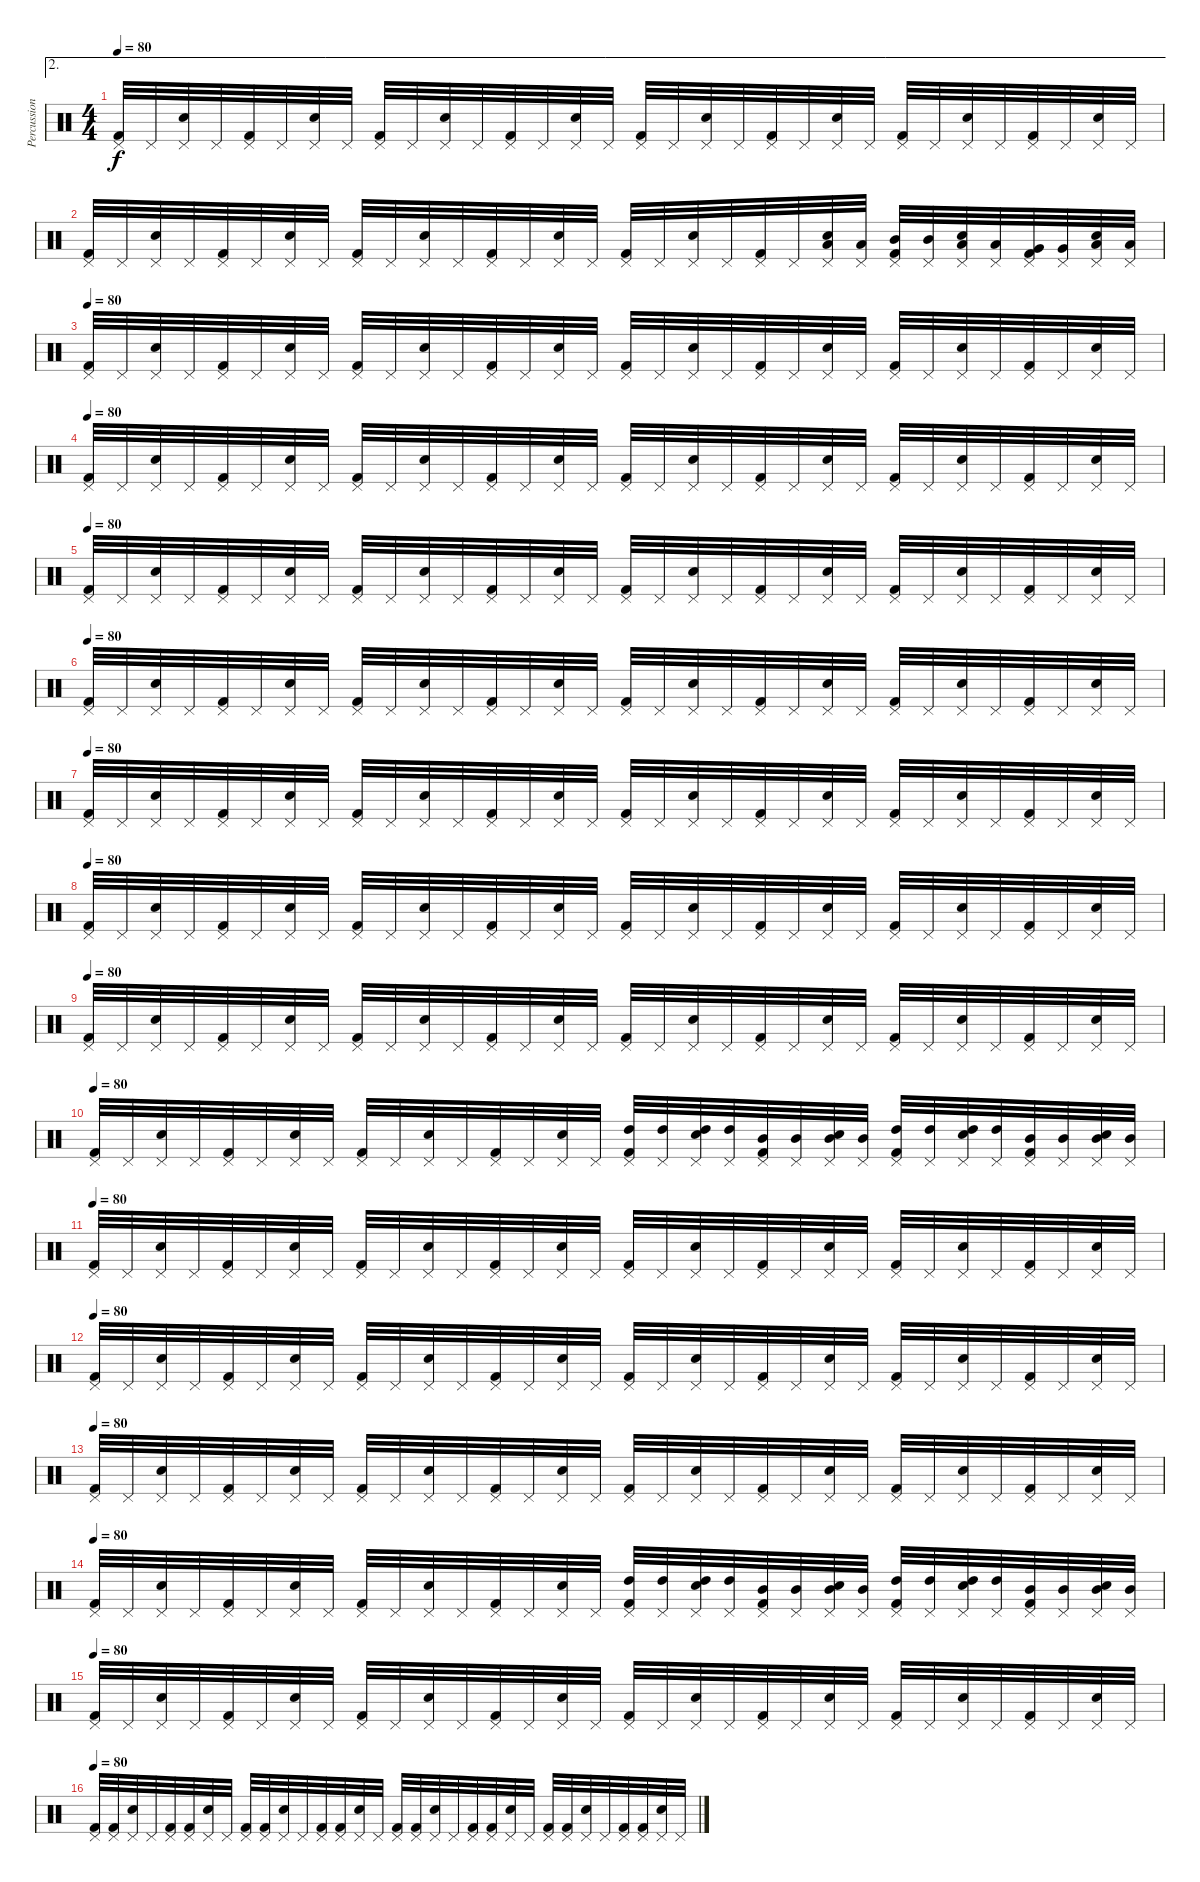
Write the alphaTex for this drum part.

\track ("Percussion" "Percussion") {instrument percussion}
\staff {score}
\articulation defaults
\ae 2
\ts (4 4)
\tempo 80
\clef neutral
\ks c
("Kick (hit) 2" "Pedal Hi-Hat (hit)").32{dy f} "Pedal Hi-Hat (hit)".32 ("Pedal Hi-Hat (hit)" "Electric Snare (hit)").32 "Pedal Hi-Hat (hit)".32 ("Kick (hit) 2" "Pedal Hi-Hat (hit)").32 "Pedal Hi-Hat (hit)".32 ("Pedal Hi-Hat (hit)" "Electric Snare (hit)").32 "Pedal Hi-Hat (hit)".32 ("Kick (hit) 2" "Pedal Hi-Hat (hit)").32 "Pedal Hi-Hat (hit)".32 ("Pedal Hi-Hat (hit)" "Electric Snare (hit)").32 "Pedal Hi-Hat (hit)".32 ("Kick (hit) 2" "Pedal Hi-Hat (hit)").32 "Pedal Hi-Hat (hit)".32 ("Pedal Hi-Hat (hit)" "Electric Snare (hit)").32 "Pedal Hi-Hat (hit)".32 ("Kick (hit) 2" "Pedal Hi-Hat (hit)").32 "Pedal Hi-Hat (hit)".32 ("Pedal Hi-Hat (hit)" "Electric Snare (hit)").32 "Pedal Hi-Hat (hit)".32 ("Kick (hit) 2" "Pedal Hi-Hat (hit)").32 "Pedal Hi-Hat (hit)".32 ("Pedal Hi-Hat (hit)" "Electric Snare (hit)").32 "Pedal Hi-Hat (hit)".32 ("Kick (hit) 2" "Pedal Hi-Hat (hit)").32 "Pedal Hi-Hat (hit)".32 ("Pedal Hi-Hat (hit)" "Electric Snare (hit)").32 "Pedal Hi-Hat (hit)".32 ("Kick (hit) 2" "Pedal Hi-Hat (hit)").32 "Pedal Hi-Hat (hit)".32 ("Pedal Hi-Hat (hit)" "Electric Snare (hit)").32 "Pedal Hi-Hat (hit)".32 |
("Kick (hit) 2" "Pedal Hi-Hat (hit)").32 "Pedal Hi-Hat (hit)".32 ("Pedal Hi-Hat (hit)" "Electric Snare (hit)").32 "Pedal Hi-Hat (hit)".32 ("Kick (hit) 2" "Pedal Hi-Hat (hit)").32 "Pedal Hi-Hat (hit)".32 ("Pedal Hi-Hat (hit)" "Electric Snare (hit)").32 "Pedal Hi-Hat (hit)".32 ("Kick (hit) 2" "Pedal Hi-Hat (hit)").32 "Pedal Hi-Hat (hit)".32 ("Pedal Hi-Hat (hit)" "Electric Snare (hit)").32 "Pedal Hi-Hat (hit)".32 ("Kick (hit) 2" "Pedal Hi-Hat (hit)").32 "Pedal Hi-Hat (hit)".32 ("Pedal Hi-Hat (hit)" "Electric Snare (hit)").32 "Pedal Hi-Hat (hit)".32 ("Kick (hit) 2" "Pedal Hi-Hat (hit)").32 "Pedal Hi-Hat (hit)".32 ("Pedal Hi-Hat (hit)" "Electric Snare (hit)").32 "Pedal Hi-Hat (hit)".32 ("Kick (hit) 2" "Pedal Hi-Hat (hit)").32 "Pedal Hi-Hat (hit)".32 ("Pedal Hi-Hat (hit)" "Electric Snare (hit)" "Low Tom (hit)").32 ("Pedal Hi-Hat (hit)" "Low Tom (hit)").32 ("Kick (hit) 2" "Pedal Hi-Hat (hit)" "Mid Tom (hit)").32 ("Pedal Hi-Hat (hit)" "Mid Tom (hit)").32 ("Pedal Hi-Hat (hit)" "Electric Snare (hit)" "Low Tom (hit)").32 ("Pedal Hi-Hat (hit)" "Low Tom (hit)").32 ("Kick (hit) 2" "Pedal Hi-Hat (hit)" "Very Low Tom (hit)").32 ("Pedal Hi-Hat (hit)" "Very Low Tom (hit)").32 ("Pedal Hi-Hat (hit)" "Electric Snare (hit)" "Low Floor Tom (hit)").32 ("Pedal Hi-Hat (hit)" "Low Floor Tom (hit)").32 |
\tempo 80
("Kick (hit) 2" "Pedal Hi-Hat (hit)").32 "Pedal Hi-Hat (hit)".32 ("Pedal Hi-Hat (hit)" "Electric Snare (hit)").32 "Pedal Hi-Hat (hit)".32 ("Kick (hit) 2" "Pedal Hi-Hat (hit)").32 "Pedal Hi-Hat (hit)".32 ("Pedal Hi-Hat (hit)" "Electric Snare (hit)").32 "Pedal Hi-Hat (hit)".32 ("Kick (hit) 2" "Pedal Hi-Hat (hit)").32 "Pedal Hi-Hat (hit)".32 ("Pedal Hi-Hat (hit)" "Electric Snare (hit)").32 "Pedal Hi-Hat (hit)".32 ("Kick (hit) 2" "Pedal Hi-Hat (hit)").32 "Pedal Hi-Hat (hit)".32 ("Pedal Hi-Hat (hit)" "Electric Snare (hit)").32 "Pedal Hi-Hat (hit)".32 ("Kick (hit) 2" "Pedal Hi-Hat (hit)").32 "Pedal Hi-Hat (hit)".32 ("Pedal Hi-Hat (hit)" "Electric Snare (hit)").32 "Pedal Hi-Hat (hit)".32 ("Kick (hit) 2" "Pedal Hi-Hat (hit)").32 "Pedal Hi-Hat (hit)".32 ("Pedal Hi-Hat (hit)" "Electric Snare (hit)").32 "Pedal Hi-Hat (hit)".32 ("Kick (hit) 2" "Pedal Hi-Hat (hit)").32 "Pedal Hi-Hat (hit)".32 ("Pedal Hi-Hat (hit)" "Electric Snare (hit)").32 "Pedal Hi-Hat (hit)".32 ("Kick (hit) 2" "Pedal Hi-Hat (hit)").32 "Pedal Hi-Hat (hit)".32 ("Pedal Hi-Hat (hit)" "Electric Snare (hit)").32 "Pedal Hi-Hat (hit)".32 |
\tempo 80
("Kick (hit) 2" "Pedal Hi-Hat (hit)").32 "Pedal Hi-Hat (hit)".32 ("Pedal Hi-Hat (hit)" "Electric Snare (hit)").32 "Pedal Hi-Hat (hit)".32 ("Kick (hit) 2" "Pedal Hi-Hat (hit)").32 "Pedal Hi-Hat (hit)".32 ("Pedal Hi-Hat (hit)" "Electric Snare (hit)").32 "Pedal Hi-Hat (hit)".32 ("Kick (hit) 2" "Pedal Hi-Hat (hit)").32 "Pedal Hi-Hat (hit)".32 ("Pedal Hi-Hat (hit)" "Electric Snare (hit)").32 "Pedal Hi-Hat (hit)".32 ("Kick (hit) 2" "Pedal Hi-Hat (hit)").32 "Pedal Hi-Hat (hit)".32 ("Pedal Hi-Hat (hit)" "Electric Snare (hit)").32 "Pedal Hi-Hat (hit)".32 ("Kick (hit) 2" "Pedal Hi-Hat (hit)").32 "Pedal Hi-Hat (hit)".32 ("Pedal Hi-Hat (hit)" "Electric Snare (hit)").32 "Pedal Hi-Hat (hit)".32 ("Kick (hit) 2" "Pedal Hi-Hat (hit)").32 "Pedal Hi-Hat (hit)".32 ("Pedal Hi-Hat (hit)" "Electric Snare (hit)").32 "Pedal Hi-Hat (hit)".32 ("Kick (hit) 2" "Pedal Hi-Hat (hit)").32 "Pedal Hi-Hat (hit)".32 ("Pedal Hi-Hat (hit)" "Electric Snare (hit)").32 "Pedal Hi-Hat (hit)".32 ("Kick (hit) 2" "Pedal Hi-Hat (hit)").32 "Pedal Hi-Hat (hit)".32 ("Pedal Hi-Hat (hit)" "Electric Snare (hit)").32 "Pedal Hi-Hat (hit)".32 |
\tempo 80
("Kick (hit) 2" "Pedal Hi-Hat (hit)").32 "Pedal Hi-Hat (hit)".32 ("Pedal Hi-Hat (hit)" "Electric Snare (hit)").32 "Pedal Hi-Hat (hit)".32 ("Kick (hit) 2" "Pedal Hi-Hat (hit)").32 "Pedal Hi-Hat (hit)".32 ("Pedal Hi-Hat (hit)" "Electric Snare (hit)").32 "Pedal Hi-Hat (hit)".32 ("Kick (hit) 2" "Pedal Hi-Hat (hit)").32 "Pedal Hi-Hat (hit)".32 ("Pedal Hi-Hat (hit)" "Electric Snare (hit)").32 "Pedal Hi-Hat (hit)".32 ("Kick (hit) 2" "Pedal Hi-Hat (hit)").32 "Pedal Hi-Hat (hit)".32 ("Pedal Hi-Hat (hit)" "Electric Snare (hit)").32 "Pedal Hi-Hat (hit)".32 ("Kick (hit) 2" "Pedal Hi-Hat (hit)").32 "Pedal Hi-Hat (hit)".32 ("Pedal Hi-Hat (hit)" "Electric Snare (hit)").32 "Pedal Hi-Hat (hit)".32 ("Kick (hit) 2" "Pedal Hi-Hat (hit)").32 "Pedal Hi-Hat (hit)".32 ("Pedal Hi-Hat (hit)" "Electric Snare (hit)").32 "Pedal Hi-Hat (hit)".32 ("Kick (hit) 2" "Pedal Hi-Hat (hit)").32 "Pedal Hi-Hat (hit)".32 ("Pedal Hi-Hat (hit)" "Electric Snare (hit)").32 "Pedal Hi-Hat (hit)".32 ("Kick (hit) 2" "Pedal Hi-Hat (hit)").32 "Pedal Hi-Hat (hit)".32 ("Pedal Hi-Hat (hit)" "Electric Snare (hit)").32 "Pedal Hi-Hat (hit)".32 |
\tempo 80
("Kick (hit) 2" "Pedal Hi-Hat (hit)").32 "Pedal Hi-Hat (hit)".32 ("Pedal Hi-Hat (hit)" "Electric Snare (hit)").32 "Pedal Hi-Hat (hit)".32 ("Kick (hit) 2" "Pedal Hi-Hat (hit)").32 "Pedal Hi-Hat (hit)".32 ("Pedal Hi-Hat (hit)" "Electric Snare (hit)").32 "Pedal Hi-Hat (hit)".32 ("Kick (hit) 2" "Pedal Hi-Hat (hit)").32 "Pedal Hi-Hat (hit)".32 ("Pedal Hi-Hat (hit)" "Electric Snare (hit)").32 "Pedal Hi-Hat (hit)".32 ("Kick (hit) 2" "Pedal Hi-Hat (hit)").32 "Pedal Hi-Hat (hit)".32 ("Pedal Hi-Hat (hit)" "Electric Snare (hit)").32 "Pedal Hi-Hat (hit)".32 ("Kick (hit) 2" "Pedal Hi-Hat (hit)").32 "Pedal Hi-Hat (hit)".32 ("Pedal Hi-Hat (hit)" "Electric Snare (hit)").32 "Pedal Hi-Hat (hit)".32 ("Kick (hit) 2" "Pedal Hi-Hat (hit)").32 "Pedal Hi-Hat (hit)".32 ("Pedal Hi-Hat (hit)" "Electric Snare (hit)").32 "Pedal Hi-Hat (hit)".32 ("Kick (hit) 2" "Pedal Hi-Hat (hit)").32 "Pedal Hi-Hat (hit)".32 ("Pedal Hi-Hat (hit)" "Electric Snare (hit)").32 "Pedal Hi-Hat (hit)".32 ("Kick (hit) 2" "Pedal Hi-Hat (hit)").32 "Pedal Hi-Hat (hit)".32 ("Pedal Hi-Hat (hit)" "Electric Snare (hit)").32 "Pedal Hi-Hat (hit)".32 |
\tempo 80
("Kick (hit) 2" "Pedal Hi-Hat (hit)").32 "Pedal Hi-Hat (hit)".32 ("Pedal Hi-Hat (hit)" "Electric Snare (hit)").32 "Pedal Hi-Hat (hit)".32 ("Kick (hit) 2" "Pedal Hi-Hat (hit)").32 "Pedal Hi-Hat (hit)".32 ("Pedal Hi-Hat (hit)" "Electric Snare (hit)").32 "Pedal Hi-Hat (hit)".32 ("Kick (hit) 2" "Pedal Hi-Hat (hit)").32 "Pedal Hi-Hat (hit)".32 ("Pedal Hi-Hat (hit)" "Electric Snare (hit)").32 "Pedal Hi-Hat (hit)".32 ("Kick (hit) 2" "Pedal Hi-Hat (hit)").32 "Pedal Hi-Hat (hit)".32 ("Pedal Hi-Hat (hit)" "Electric Snare (hit)").32 "Pedal Hi-Hat (hit)".32 ("Kick (hit) 2" "Pedal Hi-Hat (hit)").32 "Pedal Hi-Hat (hit)".32 ("Pedal Hi-Hat (hit)" "Electric Snare (hit)").32 "Pedal Hi-Hat (hit)".32 ("Kick (hit) 2" "Pedal Hi-Hat (hit)").32 "Pedal Hi-Hat (hit)".32 ("Pedal Hi-Hat (hit)" "Electric Snare (hit)").32 "Pedal Hi-Hat (hit)".32 ("Kick (hit) 2" "Pedal Hi-Hat (hit)").32 "Pedal Hi-Hat (hit)".32 ("Pedal Hi-Hat (hit)" "Electric Snare (hit)").32 "Pedal Hi-Hat (hit)".32 ("Kick (hit) 2" "Pedal Hi-Hat (hit)").32 "Pedal Hi-Hat (hit)".32 ("Pedal Hi-Hat (hit)" "Electric Snare (hit)").32 "Pedal Hi-Hat (hit)".32 |
\tempo 80
("Kick (hit) 2" "Pedal Hi-Hat (hit)").32 "Pedal Hi-Hat (hit)".32 ("Pedal Hi-Hat (hit)" "Electric Snare (hit)").32 "Pedal Hi-Hat (hit)".32 ("Kick (hit) 2" "Pedal Hi-Hat (hit)").32 "Pedal Hi-Hat (hit)".32 ("Pedal Hi-Hat (hit)" "Electric Snare (hit)").32 "Pedal Hi-Hat (hit)".32 ("Kick (hit) 2" "Pedal Hi-Hat (hit)").32 "Pedal Hi-Hat (hit)".32 ("Pedal Hi-Hat (hit)" "Electric Snare (hit)").32 "Pedal Hi-Hat (hit)".32 ("Kick (hit) 2" "Pedal Hi-Hat (hit)").32 "Pedal Hi-Hat (hit)".32 ("Pedal Hi-Hat (hit)" "Electric Snare (hit)").32 "Pedal Hi-Hat (hit)".32 ("Kick (hit) 2" "Pedal Hi-Hat (hit)").32 "Pedal Hi-Hat (hit)".32 ("Pedal Hi-Hat (hit)" "Electric Snare (hit)").32 "Pedal Hi-Hat (hit)".32 ("Kick (hit) 2" "Pedal Hi-Hat (hit)").32 "Pedal Hi-Hat (hit)".32 ("Pedal Hi-Hat (hit)" "Electric Snare (hit)").32 "Pedal Hi-Hat (hit)".32 ("Kick (hit) 2" "Pedal Hi-Hat (hit)").32 "Pedal Hi-Hat (hit)".32 ("Pedal Hi-Hat (hit)" "Electric Snare (hit)").32 "Pedal Hi-Hat (hit)".32 ("Kick (hit) 2" "Pedal Hi-Hat (hit)").32 "Pedal Hi-Hat (hit)".32 ("Pedal Hi-Hat (hit)" "Electric Snare (hit)").32 "Pedal Hi-Hat (hit)".32 |
\tempo 80
("Kick (hit) 2" "Pedal Hi-Hat (hit)").32 "Pedal Hi-Hat (hit)".32 ("Pedal Hi-Hat (hit)" "Electric Snare (hit)").32 "Pedal Hi-Hat (hit)".32 ("Kick (hit) 2" "Pedal Hi-Hat (hit)").32 "Pedal Hi-Hat (hit)".32 ("Pedal Hi-Hat (hit)" "Electric Snare (hit)").32 "Pedal Hi-Hat (hit)".32 ("Kick (hit) 2" "Pedal Hi-Hat (hit)").32 "Pedal Hi-Hat (hit)".32 ("Pedal Hi-Hat (hit)" "Electric Snare (hit)").32 "Pedal Hi-Hat (hit)".32 ("Kick (hit) 2" "Pedal Hi-Hat (hit)").32 "Pedal Hi-Hat (hit)".32 ("Pedal Hi-Hat (hit)" "Electric Snare (hit)").32 "Pedal Hi-Hat (hit)".32 ("Kick (hit) 2" "Pedal Hi-Hat (hit)").32 "Pedal Hi-Hat (hit)".32 ("Pedal Hi-Hat (hit)" "Electric Snare (hit)").32 "Pedal Hi-Hat (hit)".32 ("Kick (hit) 2" "Pedal Hi-Hat (hit)").32 "Pedal Hi-Hat (hit)".32 ("Pedal Hi-Hat (hit)" "Electric Snare (hit)").32 "Pedal Hi-Hat (hit)".32 ("Kick (hit) 2" "Pedal Hi-Hat (hit)").32 "Pedal Hi-Hat (hit)".32 ("Pedal Hi-Hat (hit)" "Electric Snare (hit)").32 "Pedal Hi-Hat (hit)".32 ("Kick (hit) 2" "Pedal Hi-Hat (hit)").32 "Pedal Hi-Hat (hit)".32 ("Pedal Hi-Hat (hit)" "Electric Snare (hit)").32 "Pedal Hi-Hat (hit)".32 |
\tempo 80
("Kick (hit) 2" "Pedal Hi-Hat (hit)").32 "Pedal Hi-Hat (hit)".32 ("Pedal Hi-Hat (hit)" "Electric Snare (hit)").32 "Pedal Hi-Hat (hit)".32 ("Kick (hit) 2" "Pedal Hi-Hat (hit)").32 "Pedal Hi-Hat (hit)".32 ("Pedal Hi-Hat (hit)" "Electric Snare (hit)").32 "Pedal Hi-Hat (hit)".32 ("Kick (hit) 2" "Pedal Hi-Hat (hit)").32 "Pedal Hi-Hat (hit)".32 ("Pedal Hi-Hat (hit)" "Electric Snare (hit)").32 "Pedal Hi-Hat (hit)".32 ("Kick (hit) 2" "Pedal Hi-Hat (hit)").32 "Pedal Hi-Hat (hit)".32 ("Pedal Hi-Hat (hit)" "Electric Snare (hit)").32 "Pedal Hi-Hat (hit)".32 ("Kick (hit) 2" "Pedal Hi-Hat (hit)" "High Tom (hit)").32 ("Pedal Hi-Hat (hit)" "High Tom (hit)").32 ("Pedal Hi-Hat (hit)" "Electric Snare (hit)" "High Tom (hit)").32 ("Pedal Hi-Hat (hit)" "High Tom (hit)").32 ("Kick (hit) 2" "Pedal Hi-Hat (hit)" "Mid Tom (hit)").32 ("Pedal Hi-Hat (hit)" "Mid Tom (hit)").32 ("Pedal Hi-Hat (hit)" "Electric Snare (hit)" "Mid Tom (hit)").32 ("Pedal Hi-Hat (hit)" "Mid Tom (hit)").32 ("Kick (hit) 2" "Pedal Hi-Hat (hit)" "High Tom (hit)").32 ("Pedal Hi-Hat (hit)" "High Tom (hit)").32 ("Pedal Hi-Hat (hit)" "Electric Snare (hit)" "High Tom (hit)").32 ("Pedal Hi-Hat (hit)" "High Tom (hit)").32 ("Kick (hit) 2" "Pedal Hi-Hat (hit)" "Mid Tom (hit)").32 ("Pedal Hi-Hat (hit)" "Mid Tom (hit)").32 ("Pedal Hi-Hat (hit)" "Electric Snare (hit)" "Mid Tom (hit)").32 ("Pedal Hi-Hat (hit)" "Mid Tom (hit)").32 |
\tempo 80
("Kick (hit) 2" "Pedal Hi-Hat (hit)").32 "Pedal Hi-Hat (hit)".32 ("Pedal Hi-Hat (hit)" "Electric Snare (hit)").32 "Pedal Hi-Hat (hit)".32 ("Kick (hit) 2" "Pedal Hi-Hat (hit)").32 "Pedal Hi-Hat (hit)".32 ("Pedal Hi-Hat (hit)" "Electric Snare (hit)").32 "Pedal Hi-Hat (hit)".32 ("Kick (hit) 2" "Pedal Hi-Hat (hit)").32 "Pedal Hi-Hat (hit)".32 ("Pedal Hi-Hat (hit)" "Electric Snare (hit)").32 "Pedal Hi-Hat (hit)".32 ("Kick (hit) 2" "Pedal Hi-Hat (hit)").32 "Pedal Hi-Hat (hit)".32 ("Pedal Hi-Hat (hit)" "Electric Snare (hit)").32 "Pedal Hi-Hat (hit)".32 ("Kick (hit) 2" "Pedal Hi-Hat (hit)").32 "Pedal Hi-Hat (hit)".32 ("Pedal Hi-Hat (hit)" "Electric Snare (hit)").32 "Pedal Hi-Hat (hit)".32 ("Kick (hit) 2" "Pedal Hi-Hat (hit)").32 "Pedal Hi-Hat (hit)".32 ("Pedal Hi-Hat (hit)" "Electric Snare (hit)").32 "Pedal Hi-Hat (hit)".32 ("Kick (hit) 2" "Pedal Hi-Hat (hit)").32 "Pedal Hi-Hat (hit)".32 ("Pedal Hi-Hat (hit)" "Electric Snare (hit)").32 "Pedal Hi-Hat (hit)".32 ("Kick (hit) 2" "Pedal Hi-Hat (hit)").32 "Pedal Hi-Hat (hit)".32 ("Pedal Hi-Hat (hit)" "Electric Snare (hit)").32 "Pedal Hi-Hat (hit)".32 |
\tempo 80
("Kick (hit) 2" "Pedal Hi-Hat (hit)").32 "Pedal Hi-Hat (hit)".32 ("Pedal Hi-Hat (hit)" "Electric Snare (hit)").32 "Pedal Hi-Hat (hit)".32 ("Kick (hit) 2" "Pedal Hi-Hat (hit)").32 "Pedal Hi-Hat (hit)".32 ("Pedal Hi-Hat (hit)" "Electric Snare (hit)").32 "Pedal Hi-Hat (hit)".32 ("Kick (hit) 2" "Pedal Hi-Hat (hit)").32 "Pedal Hi-Hat (hit)".32 ("Pedal Hi-Hat (hit)" "Electric Snare (hit)").32 "Pedal Hi-Hat (hit)".32 ("Kick (hit) 2" "Pedal Hi-Hat (hit)").32 "Pedal Hi-Hat (hit)".32 ("Pedal Hi-Hat (hit)" "Electric Snare (hit)").32 "Pedal Hi-Hat (hit)".32 ("Kick (hit) 2" "Pedal Hi-Hat (hit)").32 "Pedal Hi-Hat (hit)".32 ("Pedal Hi-Hat (hit)" "Electric Snare (hit)").32 "Pedal Hi-Hat (hit)".32 ("Kick (hit) 2" "Pedal Hi-Hat (hit)").32 "Pedal Hi-Hat (hit)".32 ("Pedal Hi-Hat (hit)" "Electric Snare (hit)").32 "Pedal Hi-Hat (hit)".32 ("Kick (hit) 2" "Pedal Hi-Hat (hit)").32 "Pedal Hi-Hat (hit)".32 ("Pedal Hi-Hat (hit)" "Electric Snare (hit)").32 "Pedal Hi-Hat (hit)".32 ("Kick (hit) 2" "Pedal Hi-Hat (hit)").32 "Pedal Hi-Hat (hit)".32 ("Pedal Hi-Hat (hit)" "Electric Snare (hit)").32 "Pedal Hi-Hat (hit)".32 |
\tempo 80
("Kick (hit) 2" "Pedal Hi-Hat (hit)").32 "Pedal Hi-Hat (hit)".32 ("Pedal Hi-Hat (hit)" "Electric Snare (hit)").32 "Pedal Hi-Hat (hit)".32 ("Kick (hit) 2" "Pedal Hi-Hat (hit)").32 "Pedal Hi-Hat (hit)".32 ("Pedal Hi-Hat (hit)" "Electric Snare (hit)").32 "Pedal Hi-Hat (hit)".32 ("Kick (hit) 2" "Pedal Hi-Hat (hit)").32 "Pedal Hi-Hat (hit)".32 ("Pedal Hi-Hat (hit)" "Electric Snare (hit)").32 "Pedal Hi-Hat (hit)".32 ("Kick (hit) 2" "Pedal Hi-Hat (hit)").32 "Pedal Hi-Hat (hit)".32 ("Pedal Hi-Hat (hit)" "Electric Snare (hit)").32 "Pedal Hi-Hat (hit)".32 ("Kick (hit) 2" "Pedal Hi-Hat (hit)").32 "Pedal Hi-Hat (hit)".32 ("Pedal Hi-Hat (hit)" "Electric Snare (hit)").32 "Pedal Hi-Hat (hit)".32 ("Kick (hit) 2" "Pedal Hi-Hat (hit)").32 "Pedal Hi-Hat (hit)".32 ("Pedal Hi-Hat (hit)" "Electric Snare (hit)").32 "Pedal Hi-Hat (hit)".32 ("Kick (hit) 2" "Pedal Hi-Hat (hit)").32 "Pedal Hi-Hat (hit)".32 ("Pedal Hi-Hat (hit)" "Electric Snare (hit)").32 "Pedal Hi-Hat (hit)".32 ("Kick (hit) 2" "Pedal Hi-Hat (hit)").32 "Pedal Hi-Hat (hit)".32 ("Pedal Hi-Hat (hit)" "Electric Snare (hit)").32 "Pedal Hi-Hat (hit)".32 |
\tempo 80
("Kick (hit) 2" "Pedal Hi-Hat (hit)").32 "Pedal Hi-Hat (hit)".32 ("Pedal Hi-Hat (hit)" "Electric Snare (hit)").32 "Pedal Hi-Hat (hit)".32 ("Kick (hit) 2" "Pedal Hi-Hat (hit)").32 "Pedal Hi-Hat (hit)".32 ("Pedal Hi-Hat (hit)" "Electric Snare (hit)").32 "Pedal Hi-Hat (hit)".32 ("Kick (hit) 2" "Pedal Hi-Hat (hit)").32 "Pedal Hi-Hat (hit)".32 ("Pedal Hi-Hat (hit)" "Electric Snare (hit)").32 "Pedal Hi-Hat (hit)".32 ("Kick (hit) 2" "Pedal Hi-Hat (hit)").32 "Pedal Hi-Hat (hit)".32 ("Pedal Hi-Hat (hit)" "Electric Snare (hit)").32 "Pedal Hi-Hat (hit)".32 ("Kick (hit) 2" "Pedal Hi-Hat (hit)" "High Tom (hit)").32 ("Pedal Hi-Hat (hit)" "High Tom (hit)").32 ("Pedal Hi-Hat (hit)" "Electric Snare (hit)" "High Tom (hit)").32 ("Pedal Hi-Hat (hit)" "High Tom (hit)").32 ("Kick (hit) 2" "Pedal Hi-Hat (hit)" "Mid Tom (hit)").32 ("Pedal Hi-Hat (hit)" "Mid Tom (hit)").32 ("Pedal Hi-Hat (hit)" "Electric Snare (hit)" "Mid Tom (hit)").32 ("Pedal Hi-Hat (hit)" "Mid Tom (hit)").32 ("Kick (hit) 2" "Pedal Hi-Hat (hit)" "High Tom (hit)").32 ("Pedal Hi-Hat (hit)" "High Tom (hit)").32 ("Pedal Hi-Hat (hit)" "Electric Snare (hit)" "High Tom (hit)").32 ("Pedal Hi-Hat (hit)" "High Tom (hit)").32 ("Kick (hit) 2" "Pedal Hi-Hat (hit)" "Mid Tom (hit)").32 ("Pedal Hi-Hat (hit)" "Mid Tom (hit)").32 ("Pedal Hi-Hat (hit)" "Electric Snare (hit)" "Mid Tom (hit)").32 ("Pedal Hi-Hat (hit)" "Mid Tom (hit)").32 |
\tempo 80
("Kick (hit) 2" "Pedal Hi-Hat (hit)").32 "Pedal Hi-Hat (hit)".32 ("Pedal Hi-Hat (hit)" "Electric Snare (hit)").32 "Pedal Hi-Hat (hit)".32 ("Kick (hit) 2" "Pedal Hi-Hat (hit)").32 "Pedal Hi-Hat (hit)".32 ("Pedal Hi-Hat (hit)" "Electric Snare (hit)").32 "Pedal Hi-Hat (hit)".32 ("Kick (hit) 2" "Pedal Hi-Hat (hit)").32 "Pedal Hi-Hat (hit)".32 ("Pedal Hi-Hat (hit)" "Electric Snare (hit)").32 "Pedal Hi-Hat (hit)".32 ("Kick (hit) 2" "Pedal Hi-Hat (hit)").32 "Pedal Hi-Hat (hit)".32 ("Pedal Hi-Hat (hit)" "Electric Snare (hit)").32 "Pedal Hi-Hat (hit)".32 ("Kick (hit) 2" "Pedal Hi-Hat (hit)").32 "Pedal Hi-Hat (hit)".32 ("Pedal Hi-Hat (hit)" "Electric Snare (hit)").32 "Pedal Hi-Hat (hit)".32 ("Kick (hit) 2" "Pedal Hi-Hat (hit)").32 "Pedal Hi-Hat (hit)".32 ("Pedal Hi-Hat (hit)" "Electric Snare (hit)").32 "Pedal Hi-Hat (hit)".32 ("Kick (hit) 2" "Pedal Hi-Hat (hit)").32 "Pedal Hi-Hat (hit)".32 ("Pedal Hi-Hat (hit)" "Electric Snare (hit)").32 "Pedal Hi-Hat (hit)".32 ("Kick (hit) 2" "Pedal Hi-Hat (hit)").32 "Pedal Hi-Hat (hit)".32 ("Pedal Hi-Hat (hit)" "Electric Snare (hit)").32 "Pedal Hi-Hat (hit)".32 |
\tempo 80
("Kick (hit) 2" "Pedal Hi-Hat (hit)").32 ("Kick (hit) 2" "Pedal Hi-Hat (hit)").32 ("Pedal Hi-Hat (hit)" "Electric Snare (hit)").32 "Pedal Hi-Hat (hit)".32 ("Kick (hit) 2" "Pedal Hi-Hat (hit)").32 ("Kick (hit) 2" "Pedal Hi-Hat (hit)").32 ("Pedal Hi-Hat (hit)" "Electric Snare (hit)").32 "Pedal Hi-Hat (hit)".32 ("Kick (hit) 2" "Pedal Hi-Hat (hit)").32 ("Kick (hit) 2" "Pedal Hi-Hat (hit)").32 ("Pedal Hi-Hat (hit)" "Electric Snare (hit)").32 "Pedal Hi-Hat (hit)".32 ("Kick (hit) 2" "Pedal Hi-Hat (hit)").32 ("Kick (hit) 2" "Pedal Hi-Hat (hit)").32 ("Pedal Hi-Hat (hit)" "Electric Snare (hit)").32 "Pedal Hi-Hat (hit)".32 ("Kick (hit) 2" "Pedal Hi-Hat (hit)").32 ("Kick (hit) 2" "Pedal Hi-Hat (hit)").32 ("Pedal Hi-Hat (hit)" "Electric Snare (hit)").32 "Pedal Hi-Hat (hit)".32 ("Kick (hit) 2" "Pedal Hi-Hat (hit)").32 ("Kick (hit) 2" "Pedal Hi-Hat (hit)").32 ("Pedal Hi-Hat (hit)" "Electric Snare (hit)").32 "Pedal Hi-Hat (hit)".32 ("Kick (hit) 2" "Pedal Hi-Hat (hit)").32 ("Kick (hit) 2" "Pedal Hi-Hat (hit)").32 ("Pedal Hi-Hat (hit)" "Electric Snare (hit)").32 "Pedal Hi-Hat (hit)".32 ("Kick (hit) 2" "Pedal Hi-Hat (hit)").32 ("Kick (hit) 2" "Pedal Hi-Hat (hit)").32 ("Pedal Hi-Hat (hit)" "Electric Snare (hit)").32 "Pedal Hi-Hat (hit)".32
